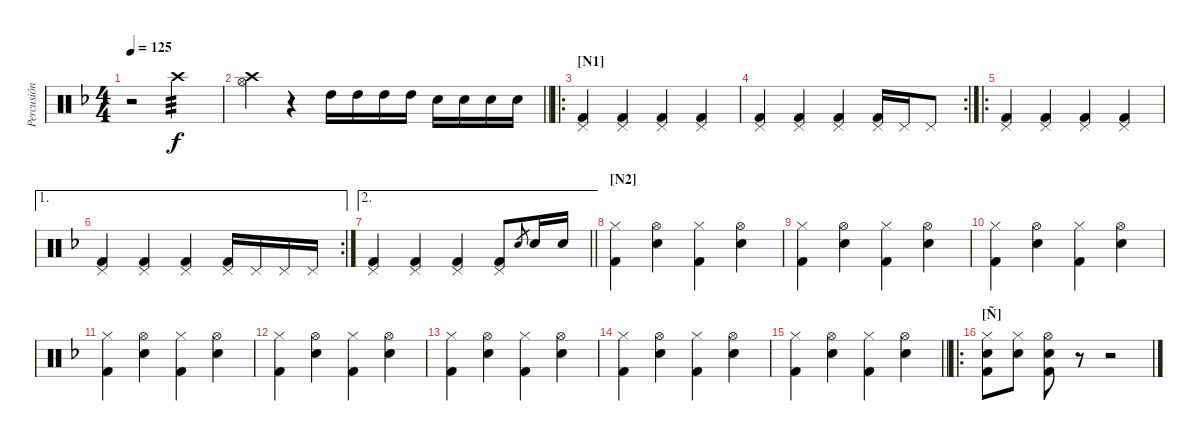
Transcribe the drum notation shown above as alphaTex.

\track ("Percusión" "Percusión") {instrument percussion}
\staff {score}
\articulation defaults
\ts (4 4)
\tempo 125
\clef neutral
\ks f
r.2{dy f} "Crash high (hit)".2{tp 3} |
\barLineRight lightlight
("Hi-Hat (open)" "Crash high (hit)").4 r.4 "High Tom (hit)".16 "High Tom (hit)".16 "High Tom (hit)".16 "High Tom (hit)".16 "Snare (hit) 2".16 "Snare (hit) 2".16 "Snare (hit) 2".16 "Snare (hit) 2".16 |
\ro
\section ("" "[N1]")
("Kick (hit) 2" "Pedal Hi-Hat (hit)").4{volume 10} ("Kick (hit) 2" "Pedal Hi-Hat (hit)").4 ("Kick (hit) 2" "Pedal Hi-Hat (hit)").4 ("Kick (hit) 2" "Pedal Hi-Hat (hit)").4 |
\rc 2
("Kick (hit) 2" "Pedal Hi-Hat (hit)").4 ("Kick (hit) 2" "Pedal Hi-Hat (hit)").4 ("Kick (hit) 2" "Pedal Hi-Hat (hit)").4 ("Kick (hit) 2" "Pedal Hi-Hat (hit)").16 "Pedal Hi-Hat (hit)".16 "Pedal Hi-Hat (hit)".8 |
\ro
("Kick (hit) 2" "Pedal Hi-Hat (hit)").4 ("Kick (hit) 2" "Pedal Hi-Hat (hit)").4 ("Kick (hit) 2" "Pedal Hi-Hat (hit)").4 ("Kick (hit) 2" "Pedal Hi-Hat (hit)").4 |
\ae 1
\rc 2
("Kick (hit) 2" "Pedal Hi-Hat (hit)").4 ("Kick (hit) 2" "Pedal Hi-Hat (hit)").4 ("Kick (hit) 2" "Pedal Hi-Hat (hit)").4 ("Kick (hit) 2" "Pedal Hi-Hat (hit)").16 "Pedal Hi-Hat (hit)".16 "Pedal Hi-Hat (hit)".16 "Pedal Hi-Hat (hit)".16 |
\ae 2
\barLineRight lightlight
("Kick (hit) 2" "Pedal Hi-Hat (hit)").4{volume 13} ("Kick (hit) 2" "Pedal Hi-Hat (hit)").4 ("Kick (hit) 2" "Pedal Hi-Hat (hit)").4 ("Kick (hit) 2" "Pedal Hi-Hat (hit)").8 "Snare (hit) 2".8{gr} "Snare (hit) 2".16 "Snare (hit) 2".16 |
\section ("" "[N2]")
("Kick (hit) 2" "Hi-Hat (closed)").4 ("Hi-Hat (open)" "Snare (hit) 2").4 ("Kick (hit) 2" "Hi-Hat (closed)").4 ("Hi-Hat (open)" "Snare (hit) 2").4 |
("Kick (hit) 2" "Hi-Hat (closed)").4 ("Hi-Hat (open)" "Snare (hit) 2").4 ("Kick (hit) 2" "Hi-Hat (closed)").4 ("Hi-Hat (open)" "Snare (hit) 2").4 |
("Kick (hit) 2" "Hi-Hat (closed)").4 ("Hi-Hat (open)" "Snare (hit) 2").4 ("Kick (hit) 2" "Hi-Hat (closed)").4 ("Hi-Hat (open)" "Snare (hit) 2").4 |
("Kick (hit) 2" "Hi-Hat (closed)").4 ("Hi-Hat (open)" "Snare (hit) 2").4 ("Kick (hit) 2" "Hi-Hat (closed)").4 ("Hi-Hat (open)" "Snare (hit) 2").4 |
("Kick (hit) 2" "Hi-Hat (closed)").4 ("Hi-Hat (open)" "Snare (hit) 2").4 ("Kick (hit) 2" "Hi-Hat (closed)").4 ("Hi-Hat (open)" "Snare (hit) 2").4 |
("Kick (hit) 2" "Hi-Hat (closed)").4 ("Hi-Hat (open)" "Snare (hit) 2").4 ("Kick (hit) 2" "Hi-Hat (closed)").4 ("Hi-Hat (open)" "Snare (hit) 2").4 |
("Kick (hit) 2" "Hi-Hat (closed)").4 ("Hi-Hat (open)" "Snare (hit) 2").4 ("Kick (hit) 2" "Hi-Hat (closed)").4 ("Hi-Hat (open)" "Snare (hit) 2").4 |
\barLineRight lightlight
("Kick (hit) 2" "Hi-Hat (closed)").4 ("Hi-Hat (open)" "Snare (hit) 2").4 ("Kick (hit) 2" "Hi-Hat (closed)").4 ("Hi-Hat (open)" "Snare (hit) 2").4 |
\ro
\section ("" "[Ñ]")
("Snare (hit) 2" "Hi-Hat (closed)" "Kick (hit) 2").8 ("Snare (hit) 2" "Hi-Hat (closed)").8 ("Hi-Hat (open)" "Snare (hit) 2" "Kick (hit) 2").8 r.8 r.2
